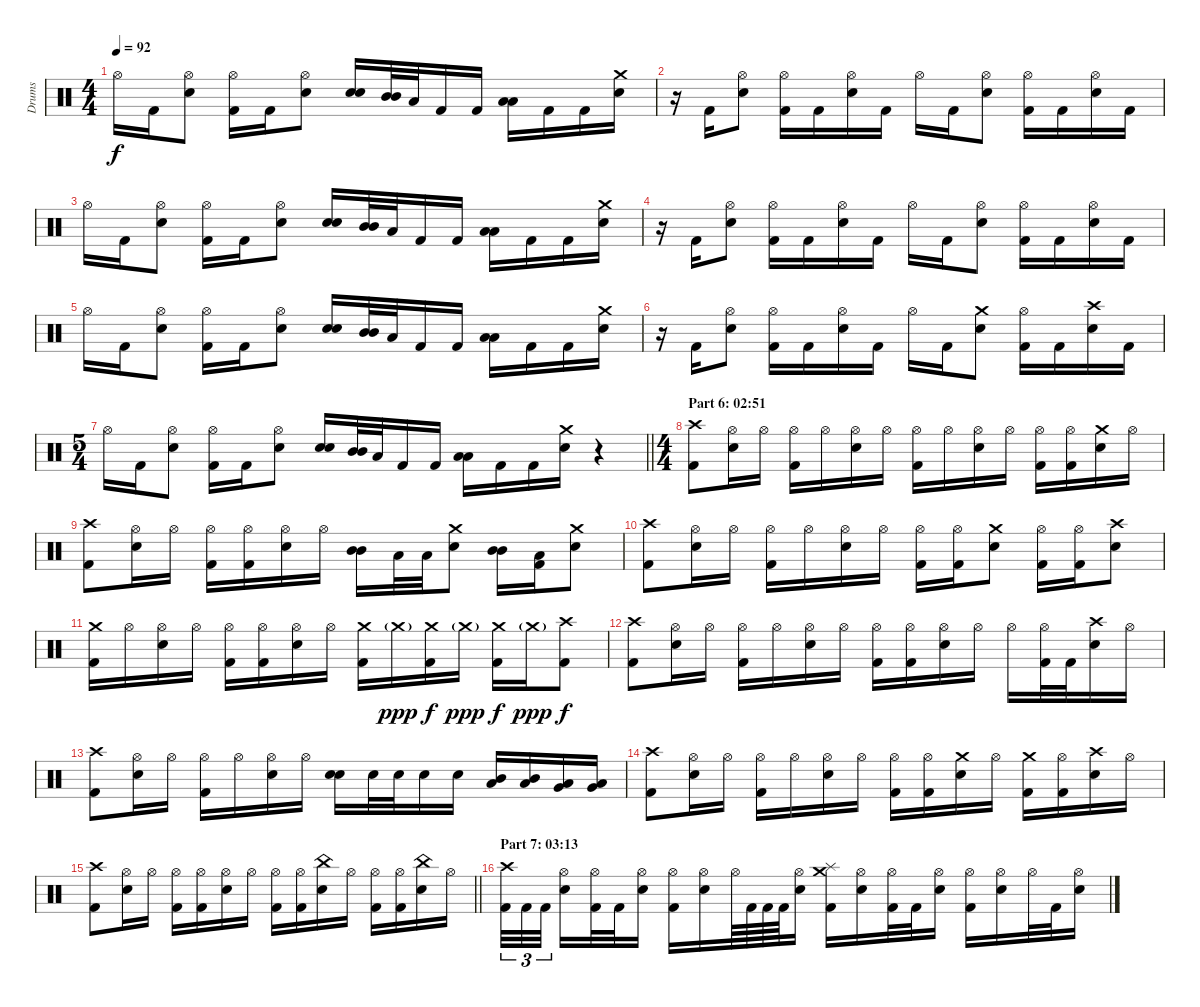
\track ("Drums" "Drums") {instrument percussion}
\staff {score}
\articulation defaults
\ts (4 4)
\tempo 92
\clef neutral
\ks c "Hi-Hat (open)".16{dy f} "Kick (hit) 2".16
("Hi-Hat (open)" "Electric Snare (hit)").8 ("Hi-Hat (open)" "Kick (hit) 2").16 "Kick (hit) 2".16 ("Hi-Hat (open)" "Electric Snare (hit)").8 ("Electric Snare (hit)" "Electric Snare (hit)").16{bd 30} ("Mid Tom (hit)" "Mid Tom (hit)").32{bd 30} "Low Tom (hit)".32 "Kick (hit) 2".16 "Kick (hit) 2".16 ("Low Tom (hit)" "Low Tom (hit)").16{bd 30} "Kick (hit) 2".16 "Kick (hit) 2".16 ("Crash medium (hit)" "Electric Snare (hit)").16 |
r.16 "Kick (hit) 2".16 ("Hi-Hat (open)" "Electric Snare (hit)").8 ("Hi-Hat (open)" "Kick (hit) 2").16 "Kick (hit) 2".16 ("Hi-Hat (open)" "Electric Snare (hit)").16 "Kick (hit) 2".16 "Hi-Hat (open)".16 "Kick (hit) 2".16 ("Hi-Hat (open)" "Electric Snare (hit)").8 ("Hi-Hat (open)" "Kick (hit) 2").16 "Kick (hit) 2".16 ("Hi-Hat (open)" "Electric Snare (hit)").16 "Kick (hit) 2".16 |
"Hi-Hat (open)".16 "Kick (hit) 2".16 ("Hi-Hat (open)" "Electric Snare (hit)").8 ("Hi-Hat (open)" "Kick (hit) 2").16 "Kick (hit) 2".16 ("Hi-Hat (open)" "Electric Snare (hit)").8 ("Electric Snare (hit)" "Electric Snare (hit)").16{bd 30} ("Mid Tom (hit)" "Mid Tom (hit)").32{bd 30} "Low Tom (hit)".32 "Kick (hit) 2".16 "Kick (hit) 2".16 ("Low Tom (hit)" "Low Tom (hit)").16{bd 30} "Kick (hit) 2".16 "Kick (hit) 2".16 ("Crash medium (hit)" "Electric Snare (hit)").16 |
r.16 "Kick (hit) 2".16 ("Hi-Hat (open)" "Electric Snare (hit)").8 ("Hi-Hat (open)" "Kick (hit) 2").16 "Kick (hit) 2".16 ("Hi-Hat (open)" "Electric Snare (hit)").16 "Kick (hit) 2".16 "Hi-Hat (open)".16 "Kick (hit) 2".16 ("Hi-Hat (open)" "Electric Snare (hit)").8 ("Hi-Hat (open)" "Kick (hit) 2").16 "Kick (hit) 2".16 ("Hi-Hat (open)" "Electric Snare (hit)").16 "Kick (hit) 2".16 |
"Hi-Hat (open)".16 "Kick (hit) 2".16 ("Hi-Hat (open)" "Electric Snare (hit)").8 ("Hi-Hat (open)" "Kick (hit) 2").16 "Kick (hit) 2".16 ("Hi-Hat (open)" "Electric Snare (hit)").8 ("Electric Snare (hit)" "Electric Snare (hit)").16{bd 30} ("Mid Tom (hit)" "Mid Tom (hit)").32{bd 30} "Low Tom (hit)".32 "Kick (hit) 2".16 "Kick (hit) 2".16 ("Low Tom (hit)" "Low Tom (hit)").16{bd 30} "Kick (hit) 2".16 "Kick (hit) 2".16 ("Crash medium (hit)" "Electric Snare (hit)").16 |
r.16 "Kick (hit) 2".16 ("Hi-Hat (open)" "Electric Snare (hit)").8 ("Hi-Hat (open)" "Kick (hit) 2").16 "Kick (hit) 2".16 ("Hi-Hat (open)" "Electric Snare (hit)").16 "Kick (hit) 2".16 "Hi-Hat (open)".16 "Kick (hit) 2".16 ("Crash medium (hit)" "Electric Snare (hit)").8 ("Hi-Hat (open)" "Kick (hit) 2").16 "Kick (hit) 2".16 ("Crash high (hit)" "Electric Snare (hit)").16 "Kick (hit) 2".16 |
\ts (5 4)
\barLineRight lightlight "Hi-Hat (open)".16 "Kick (hit) 2".16
("Hi-Hat (open)" "Electric Snare (hit)").8 ("Hi-Hat (open)" "Kick (hit) 2").16 "Kick (hit) 2".16 ("Hi-Hat (open)" "Electric Snare (hit)").8 ("Electric Snare (hit)" "Electric Snare (hit)").16{bd 30} ("Mid Tom (hit)" "Mid Tom (hit)").32{bd 30} "Low Tom (hit)".32 "Kick (hit) 2".16 "Kick (hit) 2".16 ("Low Tom (hit)" "Low Tom (hit)").16{bd 30} "Kick (hit) 2".16 "Kick (hit) 2".16 ("Crash medium (hit)" "Electric Snare (hit)").16 r.4 |
\ts (4 4)
\section ("" "Part 6: 02:51")
("Crash high (hit)" "Kick (hit) 2").8 ("Hi-Hat (open)" "Electric Snare (hit)").16 "Hi-Hat (open)".16 ("Hi-Hat (open)" "Kick (hit) 2").16 "Hi-Hat (open)".16 ("Hi-Hat (open)" "Electric Snare (hit)").16 "Hi-Hat (open)".16 ("Hi-Hat (open)" "Kick (hit) 2").16 "Hi-Hat (open)".16 ("Hi-Hat (open)" "Electric Snare (hit)").16 "Hi-Hat (open)".16 ("Hi-Hat (open)" "Kick (hit) 2").16 ("Hi-Hat (open)" "Kick (hit) 2").16 ("Crash medium (hit)" "Electric Snare (hit)").16 "Hi-Hat (open)".16 |
("Crash high (hit)" "Kick (hit) 2").8 ("Hi-Hat (open)" "Electric Snare (hit)").16 "Hi-Hat (open)".16 ("Hi-Hat (open)" "Kick (hit) 2").16 ("Hi-Hat (open)" "Kick (hit) 2").16 ("Hi-Hat (open)" "Electric Snare (hit)").16 "Hi-Hat (open)".16 ("Mid Tom (hit)" "Mid Tom (hit)").16{bd 60} "Low Tom (hit)".32 "Low Floor Tom (hit)".32 ("Crash medium (hit)" "Electric Snare (hit)").8 ("Mid Tom (hit)" "Mid Tom (hit)").16{bd 30} ("Low Floor Tom (hit)" "Kick (hit) 2").16{bd 30} ("Crash medium (hit)" "Electric Snare (hit)").8 |
("Crash high (hit)" "Kick (hit) 2").8 ("Hi-Hat (open)" "Electric Snare (hit)").16 "Hi-Hat (open)".16 ("Hi-Hat (open)" "Kick (hit) 2").16 "Hi-Hat (open)".16 ("Hi-Hat (open)" "Electric Snare (hit)").16 "Hi-Hat (open)".16 ("Hi-Hat (open)" "Kick (hit) 2").16 ("Hi-Hat (open)" "Kick (hit) 2").16 ("Crash medium (hit)" "Electric Snare (hit)").8 ("Hi-Hat (open)" "Kick (hit) 2").16 ("Hi-Hat (open)" "Kick (hit) 2").16 ("Crash high (hit)" "Electric Snare (hit)").8 |
("Crash medium (hit)" "Kick (hit) 2").16 "Hi-Hat (open)".16 ("Hi-Hat (open)" "Electric Snare (hit)").16 "Hi-Hat (open)".16 ("Hi-Hat (open)" "Kick (hit) 2").16 ("Hi-Hat (open)" "Kick (hit) 2").16 ("Hi-Hat (open)" "Electric Snare (hit)").16 "Hi-Hat (open)".16 ("Crash medium (hit)" "Kick (hit) 2").16 "Crash medium (hit)"{g}.16{dy ppp} ("Crash medium (hit)" "Kick (hit) 2").16{dy f} "Crash medium (hit)"{g}.16{dy ppp} ("Crash medium (hit)" "Kick (hit) 2").16{dy f} "Crash medium (hit)"{g}.16{dy ppp} ("Crash high (hit)" "Kick (hit) 2").8{dy f} |
("Crash high (hit)" "Kick (hit) 2").8 ("Hi-Hat (open)" "Electric Snare (hit)").16 "Hi-Hat (open)".16 ("Hi-Hat (open)" "Kick (hit) 2").16 "Hi-Hat (open)".16 ("Hi-Hat (open)" "Electric Snare (hit)").16 "Hi-Hat (open)".16 ("Hi-Hat (open)" "Kick (hit) 2").16 ("Hi-Hat (open)" "Kick (hit) 2").16 ("Hi-Hat (open)" "Electric Snare (hit)").16 "Hi-Hat (open)".16 "Hi-Hat (open)".16 ("Hi-Hat (open)" "Kick (hit) 2").32 "Kick (hit) 2".32 ("Crash high (hit)" "Electric Snare (hit)").16 "Hi-Hat (open)".16 |
("Crash high (hit)" "Kick (hit) 2").8 ("Hi-Hat (open)" "Electric Snare (hit)").16 "Hi-Hat (open)".16 ("Hi-Hat (open)" "Kick (hit) 2").16 "Hi-Hat (open)".16 ("Hi-Hat (open)" "Electric Snare (hit)").16 "Hi-Hat (open)".16 ("Electric Snare (hit)" "Electric Snare (hit)").16{bd 30} "Electric Snare (hit)".32 "Electric Snare (hit)".32 "Electric Snare (hit)".16 "Electric Snare (hit)".16 ("Mid Tom (hit)" "Low Tom (hit)").16{bd 30} ("Mid Tom (hit)" "Low Tom (hit)").16{bd 30} ("Low Tom (hit)" "Very Low Tom (hit)").16 ("Low Tom (hit)" "Very Low Tom (hit)").16 |
("Crash high (hit)" "Kick (hit) 2").8 ("Hi-Hat (open)" "Electric Snare (hit)").16 "Hi-Hat (open)".16 ("Hi-Hat (open)" "Kick (hit) 2").16 "Hi-Hat (open)".16 ("Hi-Hat (open)" "Electric Snare (hit)").16 "Hi-Hat (open)".16 ("Hi-Hat (open)" "Kick (hit) 2").16 ("Hi-Hat (open)" "Kick (hit) 2").16 ("Crash medium (hit)" "Electric Snare (hit)").16 "Hi-Hat (open)".16 ("Crash medium (hit)" "Kick (hit) 2").16 ("Hi-Hat (open)" "Kick (hit) 2").16 ("Crash high (hit)" "Electric Snare (hit)").16 "Hi-Hat (open)".16 |
\barLineRight lightlight
("Crash high (hit)" "Kick (hit) 2").8 ("Hi-Hat (open)" "Electric Snare (hit)").16 "Hi-Hat (open)".16 ("Hi-Hat (open)" "Kick (hit) 2").16 ("Hi-Hat (open)" "Kick (hit) 2").16 ("Hi-Hat (open)" "Electric Snare (hit)").16 "Hi-Hat (open)".16 ("Hi-Hat (open)" "Kick (hit) 2").16 ("Hi-Hat (open)" "Kick (hit) 2").16 ("China (hit)" "Electric Snare (hit)").16 "Hi-Hat (open)".16 ("Hi-Hat (open)" "Kick (hit) 2").16 ("Hi-Hat (open)" "Kick (hit) 2").16 ("China (hit)" "Electric Snare (hit)").16 "Hi-Hat (open)".16 |
\section ("" "Part 7: 03:13")
("Crash high (hit)" "Kick (hit) 2").32{tu (3 2)} "Kick (hit) 2".32{tu (3 2)} "Kick (hit) 2".32{tu (3 2) beam splitsecondary} ("Hi-Hat (open)" "Electric Snare (hit)").16 ("Hi-Hat (open)" "Kick (hit) 2").32 "Kick (hit) 2".32 ("Hi-Hat (open)" "Electric Snare (hit)").16 ("Hi-Hat (open)" "Kick (hit) 2").16 ("Hi-Hat (open)" "Electric Snare (hit)").16 "Hi-Hat (open)".64 "Kick (hit) 2".64 "Kick (hit) 2".64 "Kick (hit) 2".64 ("Hi-Hat (open)" "Electric Snare (hit)").16 ("Crash medium (hit)" "Splash (hit)" "Kick (hit) 2").16 ("Hi-Hat (open)" "Electric Snare (hit)").16 ("Hi-Hat (open)" "Kick (hit) 2").32 "Kick (hit) 2".32 ("Hi-Hat (open)" "Electric Snare (hit)").16 ("Hi-Hat (open)" "Kick (hit) 2").16 ("Hi-Hat (open)" "Electric Snare (hit)").16 "Hi-Hat (open)".32 "Kick (hit) 2".32 ("Hi-Hat (open)" "Electric Snare (hit)").16
